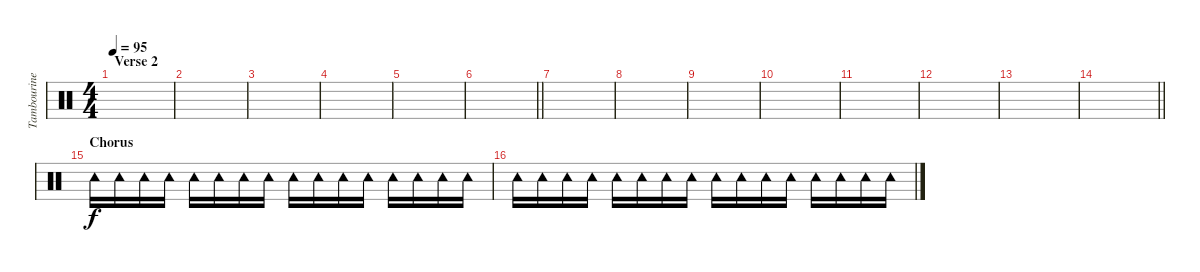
\track ("Tambourine" "Tambourine") {instrument percussion}
\staff {score}
\articulation defaults
\ts (4 4)
\section ("" "Verse 2")
\tempo 95
\clef neutral
\ks c
|
|
|
|
|
\barLineRight lightlight
|
|
|
|
|
|
|
|
\barLineRight lightlight
|
\section ("" "Chorus")
"Tambourine (hit)".16 "Tambourine (hit)".16 "Tambourine (hit)".16 "Tambourine (hit)".16 "Tambourine (hit)".16 "Tambourine (hit)".16 "Tambourine (hit)".16 "Tambourine (hit)".16 "Tambourine (hit)".16 "Tambourine (hit)".16 "Tambourine (hit)".16 "Tambourine (hit)".16 "Tambourine (hit)".16 "Tambourine (hit)".16 "Tambourine (hit)".16 "Tambourine (hit)".16 |
"Tambourine (hit)".16 "Tambourine (hit)".16 "Tambourine (hit)".16 "Tambourine (hit)".16 "Tambourine (hit)".16 "Tambourine (hit)".16 "Tambourine (hit)".16 "Tambourine (hit)".16 "Tambourine (hit)".16 "Tambourine (hit)".16 "Tambourine (hit)".16 "Tambourine (hit)".16 "Tambourine (hit)".16 "Tambourine (hit)".16 "Tambourine (hit)".16 "Tambourine (hit)".16
